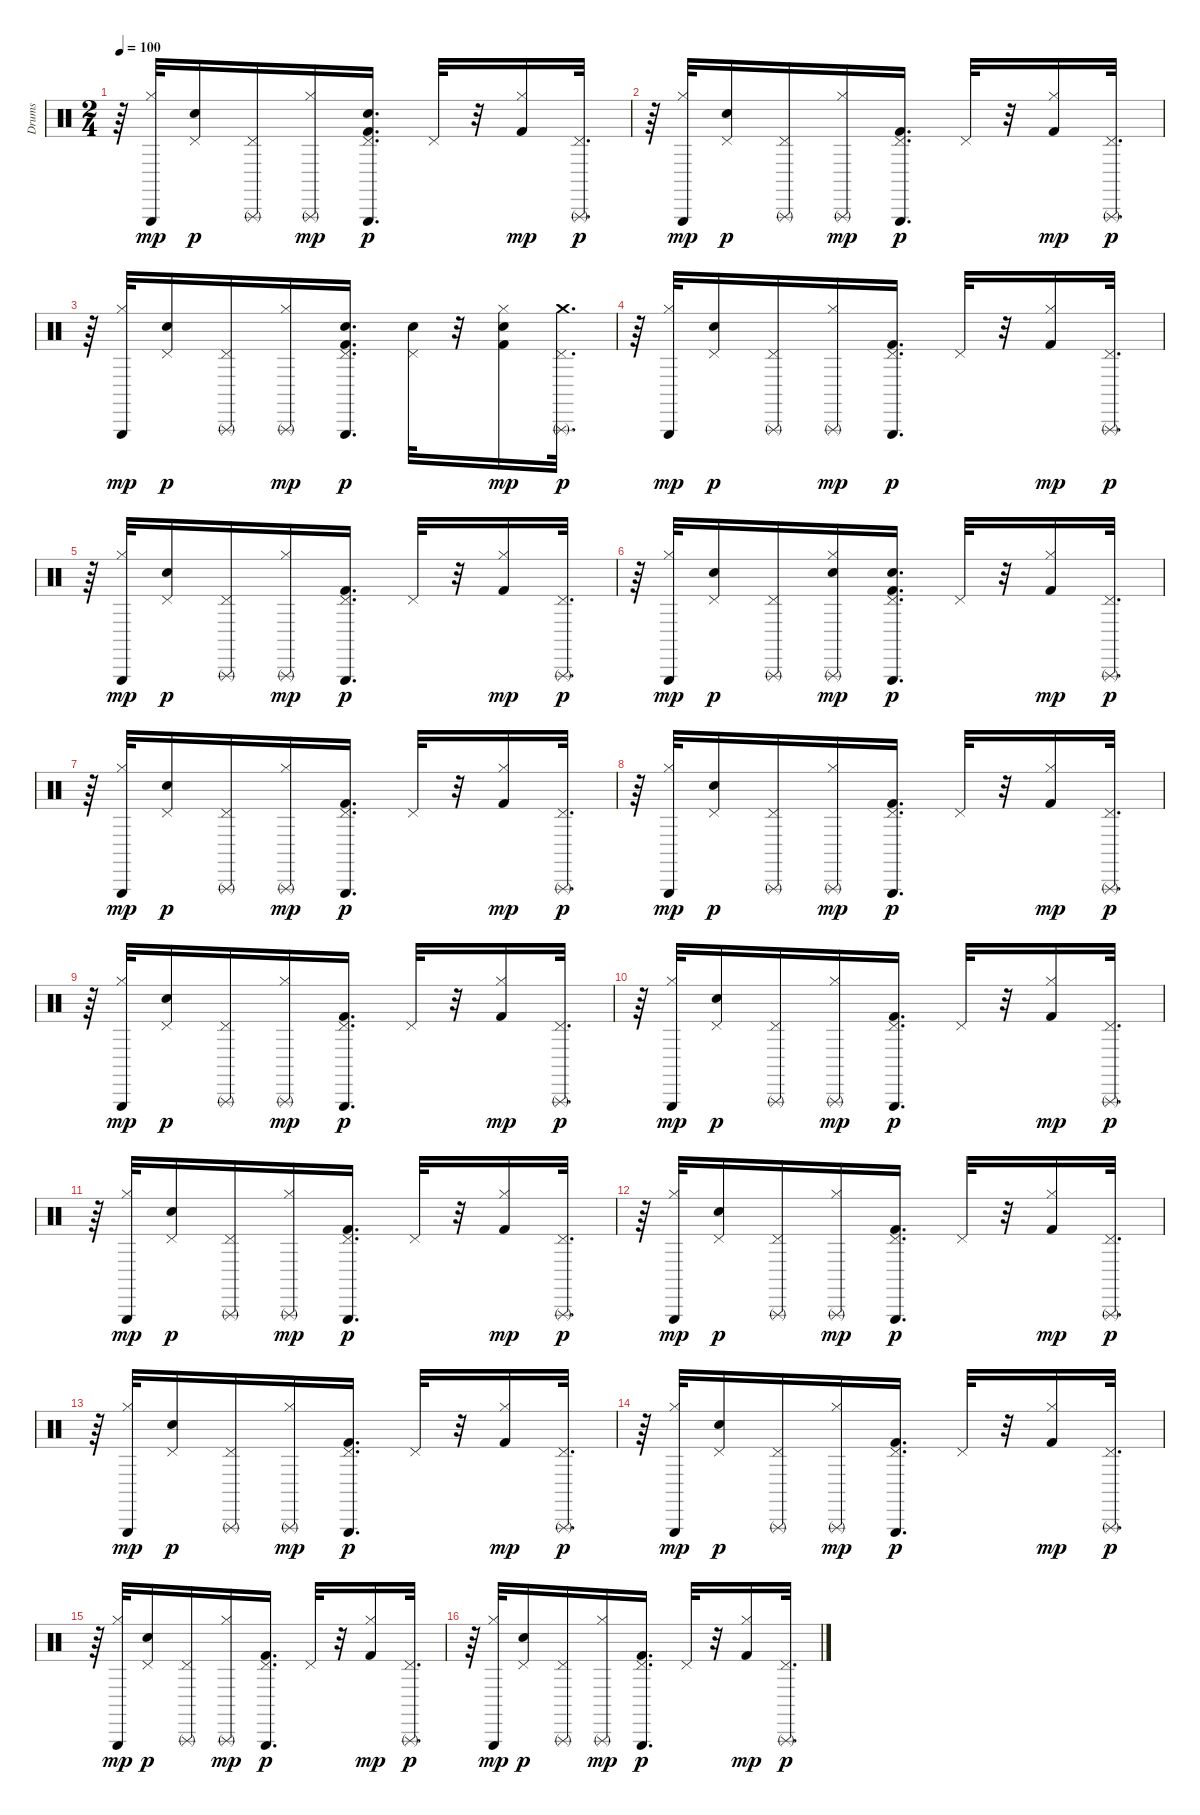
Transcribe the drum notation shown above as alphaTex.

\track ("Drums" "Drums") {instrument percussion}
\staff {score}
\articulation defaults
\ts (2 4)
\tempo 100
\clef neutral
\ks c
r.64{dy p} ("Triangle (hit)" "Hi-Hat (closed)").32{dy mp} ("Pedal Hi-Hat (hit)" "Electric Snare (hit)").16{dy p} ("Triangle (rnute)" "Pedal Hi-Hat (hit)").16 ("Triangle (rnute)" "Hi-Hat (closed)").16{dy mp} ("Triangle (hit)" "Kick (hit) 2" "Pedal Hi-Hat (hit)" "Electric Snare (hit)").16{d dy p} "Pedal Hi-Hat (hit)".32 r.32 ("Kick (hit) 2" "Hi-Hat (closed)").16{dy mp} ("Triangle (rnute)" "Pedal Hi-Hat (hit)").32{d dy p} |
r.64 ("Triangle (hit)" "Hi-Hat (closed)").32{dy mp} ("Pedal Hi-Hat (hit)" "Electric Snare (hit)").16{dy p} ("Triangle (rnute)" "Pedal Hi-Hat (hit)").16 ("Triangle (rnute)" "Hi-Hat (closed)").16{dy mp} ("Triangle (hit)" "Kick (hit) 2" "Pedal Hi-Hat (hit)").16{d dy p} "Pedal Hi-Hat (hit)".32 r.32 ("Kick (hit) 2" "Hi-Hat (closed)").16{dy mp} ("Triangle (rnute)" "Pedal Hi-Hat (hit)").32{d dy p} |
r.64 ("Triangle (hit)" "Hi-Hat (closed)").32{dy mp} ("Pedal Hi-Hat (hit)" "Electric Snare (hit)").16{dy p} ("Triangle (rnute)" "Pedal Hi-Hat (hit)").16 ("Triangle (rnute)" "Hi-Hat (closed)").16{dy mp} ("Triangle (hit)" "Kick (hit) 2" "Pedal Hi-Hat (hit)" "Electric Snare (hit)").16{d dy p} ("Pedal Hi-Hat (hit)" "Electric Snare (hit)").32 r.32 ("Kick (hit) 2" "Hi-Hat (closed)" "Electric Snare (hit)").16{dy mp} ("Triangle (rnute)" "Pedal Hi-Hat (hit)" "Crash medium (hit)").32{d dy p} |
r.64 ("Triangle (hit)" "Hi-Hat (closed)").32{dy mp} ("Pedal Hi-Hat (hit)" "Electric Snare (hit)").16{dy p} ("Triangle (rnute)" "Pedal Hi-Hat (hit)").16 ("Triangle (rnute)" "Hi-Hat (closed)").16{dy mp} ("Triangle (hit)" "Kick (hit) 2" "Pedal Hi-Hat (hit)").16{d dy p} "Pedal Hi-Hat (hit)".32 r.32 ("Kick (hit) 2" "Hi-Hat (closed)").16{dy mp} ("Triangle (rnute)" "Pedal Hi-Hat (hit)").32{d dy p} |
r.64 ("Triangle (hit)" "Hi-Hat (closed)").32{dy mp} ("Pedal Hi-Hat (hit)" "Electric Snare (hit)").16{dy p} ("Triangle (rnute)" "Pedal Hi-Hat (hit)").16 ("Triangle (rnute)" "Hi-Hat (closed)").16{dy mp} ("Triangle (hit)" "Kick (hit) 2" "Pedal Hi-Hat (hit)").16{d dy p} "Pedal Hi-Hat (hit)".32 r.32 ("Kick (hit) 2" "Hi-Hat (closed)").16{dy mp} ("Triangle (rnute)" "Pedal Hi-Hat (hit)").32{d dy p} |
r.64 ("Triangle (hit)" "Hi-Hat (closed)").32{dy mp} ("Pedal Hi-Hat (hit)" "Electric Snare (hit)").16{dy p} ("Triangle (rnute)" "Pedal Hi-Hat (hit)").16 ("Triangle (rnute)" "Hi-Hat (closed)" "Electric Snare (hit)").16{dy mp} ("Triangle (hit)" "Kick (hit) 2" "Pedal Hi-Hat (hit)" "Electric Snare (hit)").16{d dy p} "Pedal Hi-Hat (hit)".32 r.32 ("Kick (hit) 2" "Hi-Hat (closed)").16{dy mp} ("Triangle (rnute)" "Pedal Hi-Hat (hit)").32{d dy p} |
r.64 ("Triangle (hit)" "Hi-Hat (closed)").32{dy mp} ("Pedal Hi-Hat (hit)" "Electric Snare (hit)").16{dy p} ("Triangle (rnute)" "Pedal Hi-Hat (hit)").16 ("Triangle (rnute)" "Hi-Hat (closed)").16{dy mp} ("Triangle (hit)" "Kick (hit) 2" "Pedal Hi-Hat (hit)").16{d dy p} "Pedal Hi-Hat (hit)".32 r.32 ("Kick (hit) 2" "Hi-Hat (closed)").16{dy mp} ("Triangle (rnute)" "Pedal Hi-Hat (hit)").32{d dy p} |
r.64 ("Triangle (hit)" "Hi-Hat (closed)").32{dy mp} ("Pedal Hi-Hat (hit)" "Electric Snare (hit)").16{dy p} ("Triangle (rnute)" "Pedal Hi-Hat (hit)").16 ("Triangle (rnute)" "Hi-Hat (closed)").16{dy mp} ("Triangle (hit)" "Kick (hit) 2" "Pedal Hi-Hat (hit)").16{d dy p} "Pedal Hi-Hat (hit)".32 r.32 ("Kick (hit) 2" "Hi-Hat (closed)").16{dy mp} ("Triangle (rnute)" "Pedal Hi-Hat (hit)").32{d dy p} |
r.64 ("Triangle (hit)" "Hi-Hat (closed)").32{dy mp} ("Pedal Hi-Hat (hit)" "Electric Snare (hit)").16{dy p} ("Triangle (rnute)" "Pedal Hi-Hat (hit)").16 ("Triangle (rnute)" "Hi-Hat (closed)").16{dy mp} ("Triangle (hit)" "Kick (hit) 2" "Pedal Hi-Hat (hit)").16{d dy p} "Pedal Hi-Hat (hit)".32 r.32 ("Kick (hit) 2" "Hi-Hat (closed)").16{dy mp} ("Triangle (rnute)" "Pedal Hi-Hat (hit)").32{d dy p} |
r.64 ("Triangle (hit)" "Hi-Hat (closed)").32{dy mp} ("Pedal Hi-Hat (hit)" "Electric Snare (hit)").16{dy p} ("Triangle (rnute)" "Pedal Hi-Hat (hit)").16 ("Triangle (rnute)" "Hi-Hat (closed)").16{dy mp} ("Triangle (hit)" "Kick (hit) 2" "Pedal Hi-Hat (hit)").16{d dy p} "Pedal Hi-Hat (hit)".32 r.32 ("Kick (hit) 2" "Hi-Hat (closed)").16{dy mp} ("Triangle (rnute)" "Pedal Hi-Hat (hit)").32{d dy p} |
r.64 ("Triangle (hit)" "Hi-Hat (closed)").32{dy mp} ("Pedal Hi-Hat (hit)" "Electric Snare (hit)").16{dy p} ("Triangle (rnute)" "Pedal Hi-Hat (hit)").16 ("Triangle (rnute)" "Hi-Hat (closed)").16{dy mp} ("Triangle (hit)" "Kick (hit) 2" "Pedal Hi-Hat (hit)").16{d dy p} "Pedal Hi-Hat (hit)".32 r.32 ("Kick (hit) 2" "Hi-Hat (closed)").16{dy mp} ("Triangle (rnute)" "Pedal Hi-Hat (hit)").32{d dy p} |
r.64 ("Triangle (hit)" "Hi-Hat (closed)").32{dy mp} ("Pedal Hi-Hat (hit)" "Electric Snare (hit)").16{dy p} ("Triangle (rnute)" "Pedal Hi-Hat (hit)").16 ("Triangle (rnute)" "Hi-Hat (closed)").16{dy mp} ("Triangle (hit)" "Kick (hit) 2" "Pedal Hi-Hat (hit)").16{d dy p} "Pedal Hi-Hat (hit)".32 r.32 ("Kick (hit) 2" "Hi-Hat (closed)").16{dy mp} ("Triangle (rnute)" "Pedal Hi-Hat (hit)").32{d dy p} |
r.64 ("Triangle (hit)" "Hi-Hat (closed)").32{dy mp} ("Pedal Hi-Hat (hit)" "Electric Snare (hit)").16{dy p} ("Triangle (rnute)" "Pedal Hi-Hat (hit)").16 ("Triangle (rnute)" "Hi-Hat (closed)").16{dy mp} ("Triangle (hit)" "Kick (hit) 2" "Pedal Hi-Hat (hit)").16{d dy p} "Pedal Hi-Hat (hit)".32 r.32 ("Kick (hit) 2" "Hi-Hat (closed)").16{dy mp} ("Triangle (rnute)" "Pedal Hi-Hat (hit)").32{d dy p} |
r.64 ("Triangle (hit)" "Hi-Hat (closed)").32{dy mp} ("Pedal Hi-Hat (hit)" "Electric Snare (hit)").16{dy p} ("Triangle (rnute)" "Pedal Hi-Hat (hit)").16 ("Triangle (rnute)" "Hi-Hat (closed)").16{dy mp} ("Triangle (hit)" "Kick (hit) 2" "Pedal Hi-Hat (hit)").16{d dy p} "Pedal Hi-Hat (hit)".32 r.32 ("Kick (hit) 2" "Hi-Hat (closed)").16{dy mp} ("Triangle (rnute)" "Pedal Hi-Hat (hit)").32{d dy p} |
r.64 ("Triangle (hit)" "Hi-Hat (closed)").32{dy mp} ("Pedal Hi-Hat (hit)" "Electric Snare (hit)").16{dy p} ("Triangle (rnute)" "Pedal Hi-Hat (hit)").16 ("Triangle (rnute)" "Hi-Hat (closed)").16{dy mp} ("Triangle (hit)" "Kick (hit) 2" "Pedal Hi-Hat (hit)").16{d dy p} "Pedal Hi-Hat (hit)".32 r.32 ("Kick (hit) 2" "Hi-Hat (closed)").16{dy mp} ("Triangle (rnute)" "Pedal Hi-Hat (hit)").32{d dy p} |
r.64 ("Triangle (hit)" "Hi-Hat (closed)").32{dy mp} ("Pedal Hi-Hat (hit)" "Electric Snare (hit)").16{dy p} ("Triangle (rnute)" "Pedal Hi-Hat (hit)").16 ("Triangle (rnute)" "Hi-Hat (closed)").16{dy mp} ("Triangle (hit)" "Kick (hit) 2" "Pedal Hi-Hat (hit)").16{d dy p} "Pedal Hi-Hat (hit)".32 r.32 ("Kick (hit) 2" "Hi-Hat (closed)").16{dy mp} ("Triangle (rnute)" "Pedal Hi-Hat (hit)").32{d dy p}
